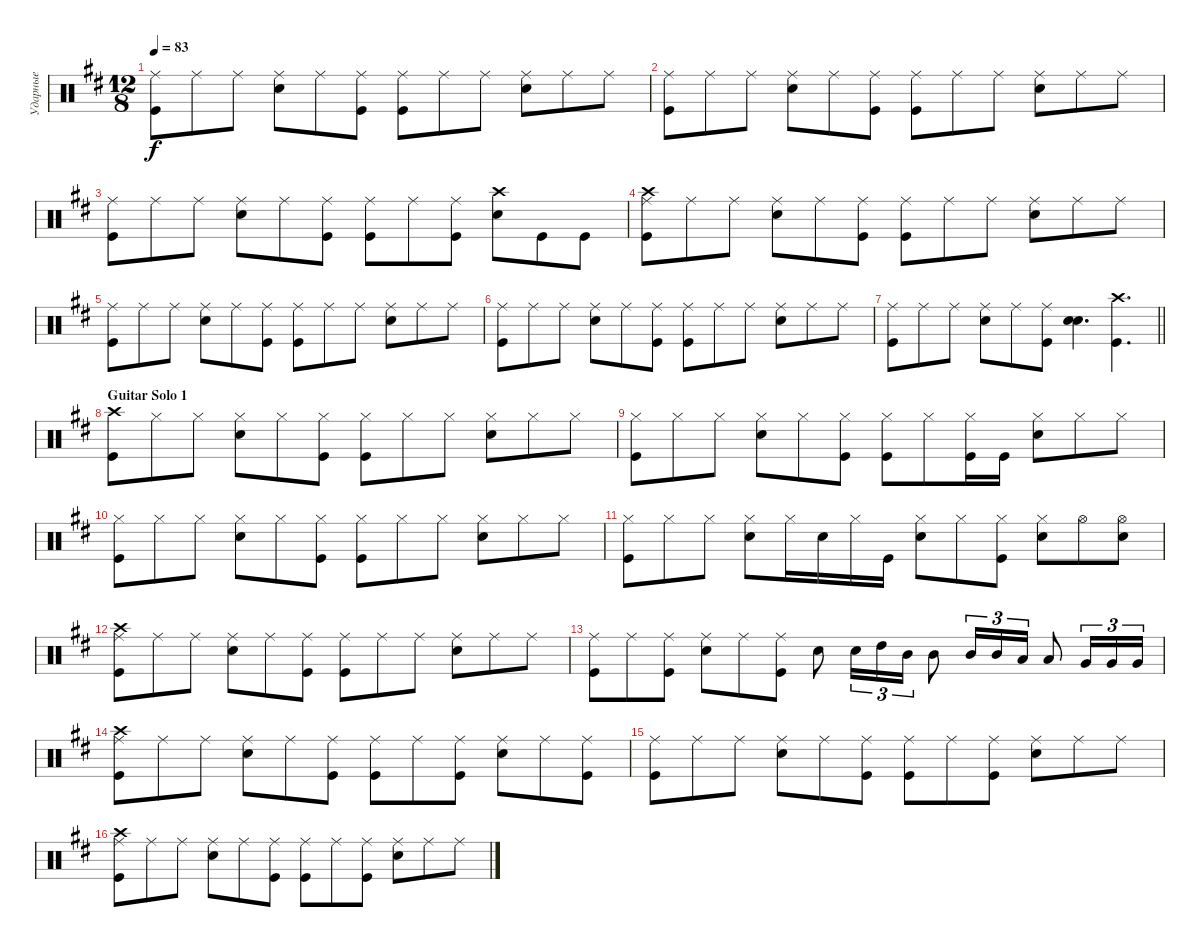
\track ("Ударные" "Ударные") {instrument percussion}
\staff {score}
\articulation defaults
\ts (12 8)
\tempo 83
\clef neutral
\ks bminor
("Kick (hit)" "Ride (middle)").8{dy f} "Ride (middle)".8 "Ride (middle)".8 ("Ride (middle)" "Snare (hit) 2").8 "Ride (middle)".8 ("Ride (middle)" "Kick (hit)").8 ("Kick (hit)" "Ride (middle)").8 "Ride (middle)".8 "Ride (middle)".8 ("Ride (middle)" "Snare (hit) 2").8 "Ride (middle)".8 "Ride (middle)".8 |
("Kick (hit)" "Ride (middle)").8 "Ride (middle)".8 "Ride (middle)".8 ("Ride (middle)" "Snare (hit) 2").8 "Ride (middle)".8 ("Ride (middle)" "Kick (hit)").8 ("Kick (hit)" "Ride (middle)").8 "Ride (middle)".8 "Ride (middle)".8 ("Ride (middle)" "Snare (hit) 2").8 "Ride (middle)".8 "Ride (middle)".8 |
("Kick (hit)" "Ride (middle)").8 "Ride (middle)".8 "Ride (middle)".8 ("Ride (middle)" "Snare (hit) 2").8 "Ride (middle)".8 ("Ride (middle)" "Kick (hit)").8 ("Kick (hit)" "Ride (middle)").8 "Ride (middle)".8 ("Ride (middle)" "Kick (hit)").8 ("Crash high (hit)" "Snare (hit) 2").8 "Kick (hit)".8 "Kick (hit)".8 |
("Kick (hit)" "Ride (middle)" "Crash high (hit)").8 "Ride (middle)".8 "Ride (middle)".8 ("Ride (middle)" "Snare (hit) 2").8 "Ride (middle)".8 ("Ride (middle)" "Kick (hit)").8 ("Kick (hit)" "Ride (middle)").8 "Ride (middle)".8 "Ride (middle)".8 ("Ride (middle)" "Snare (hit) 2").8 "Ride (middle)".8 "Ride (middle)".8 |
("Kick (hit)" "Ride (middle)").8 "Ride (middle)".8 "Ride (middle)".8 ("Ride (middle)" "Snare (hit) 2").8 "Ride (middle)".8 ("Ride (middle)" "Kick (hit)").8 ("Kick (hit)" "Ride (middle)").8 "Ride (middle)".8 "Ride (middle)".8 ("Ride (middle)" "Snare (hit) 2").8 "Ride (middle)".8 "Ride (middle)".8 |
("Kick (hit)" "Ride (middle)").8 "Ride (middle)".8 "Ride (middle)".8 ("Ride (middle)" "Snare (hit) 2").8 "Ride (middle)".8 ("Ride (middle)" "Kick (hit)").8 ("Kick (hit)" "Ride (middle)").8 "Ride (middle)".8 "Ride (middle)".8 ("Ride (middle)" "Snare (hit) 2").8 "Ride (middle)".8 "Ride (middle)".8 |
\barLineRight lightlight
("Kick (hit)" "Ride (middle)").8 "Ride (middle)".8 "Ride (middle)".8 ("Ride (middle)" "Snare (hit) 2").8 "Ride (middle)".8 ("Ride (middle)" "Kick (hit)").8 ("Snare (hit) 2" "Snare (hit) 2").4{d bd 240} ("Kick (hit)" "Crash high (hit)").4{d} |
\section ("" "Guitar Solo 1")
("Kick (hit)" "Crash high (hit)").8 "Hi-Hat (closed)".8 "Hi-Hat (closed)".8 ("Hi-Hat (closed)" "Snare (hit) 2").8 "Hi-Hat (closed)".8 ("Hi-Hat (closed)" "Kick (hit)").8 ("Hi-Hat (closed)" "Kick (hit)").8 "Hi-Hat (closed)".8 "Hi-Hat (closed)".8 ("Hi-Hat (closed)" "Snare (hit) 2").8 "Hi-Hat (closed)".8 "Hi-Hat (closed)".8 |
("Kick (hit)" "Hi-Hat (closed)").8 "Hi-Hat (closed)".8 "Hi-Hat (closed)".8 ("Hi-Hat (closed)" "Snare (hit) 2").8 "Hi-Hat (closed)".8 ("Hi-Hat (closed)" "Kick (hit)").8 ("Hi-Hat (closed)" "Kick (hit)").8 "Hi-Hat (closed)".8 ("Hi-Hat (closed)" "Kick (hit)").16 "Kick (hit)".16 ("Hi-Hat (closed)" "Snare (hit) 2").8 "Hi-Hat (closed)".8 "Hi-Hat (closed)".8 |
("Kick (hit)" "Hi-Hat (closed)").8 "Hi-Hat (closed)".8 "Hi-Hat (closed)".8 ("Hi-Hat (closed)" "Snare (hit) 2").8 "Hi-Hat (closed)".8 ("Hi-Hat (closed)" "Kick (hit)").8 ("Hi-Hat (closed)" "Kick (hit)").8 "Hi-Hat (closed)".8 "Hi-Hat (closed)".8 ("Hi-Hat (closed)" "Snare (hit) 2").8 "Hi-Hat (closed)".8 "Hi-Hat (closed)".8 |
("Kick (hit)" "Hi-Hat (closed)").8 "Hi-Hat (closed)".8 "Hi-Hat (closed)".8 ("Hi-Hat (closed)" "Snare (hit) 2").8 "Hi-Hat (closed)".16 "Snare (hit) 2".16 "Hi-Hat (closed)".16 "Kick (hit)".16 ("Hi-Hat (closed)" "Snare (hit) 2").8 "Hi-Hat (closed)".8 ("Hi-Hat (closed)" "Kick (hit)").8 ("Hi-Hat (closed)" "Snare (hit) 2").8 "Hi-Hat (open)".8 ("Hi-Hat (open)" "Snare (hit) 2").8 |
("Kick (hit)" "Ride (middle)" "Crash high (hit)").8 "Ride (middle)".8 "Ride (middle)".8 ("Ride (middle)" "Snare (hit) 2").8 "Ride (middle)".8 ("Ride (middle)" "Kick (hit)").8 ("Kick (hit)" "Ride (middle)").8 "Ride (middle)".8 "Ride (middle)".8 ("Ride (middle)" "Snare (hit) 2").8 "Ride (middle)".8 "Ride (middle)".8 |
("Kick (hit)" "Ride (middle)").8 "Ride (middle)".8 ("Ride (middle)" "Kick (hit)").8 ("Ride (middle)" "Snare (hit) 2").8 "Ride (middle)".8 ("Kick (hit)" "Ride (middle)").8 "Snare (hit) 2".8 "Snare (hit) 2".16{tu (3 2)} "High Tom (hit)".16{tu (3 2)} "Mid Tom (hit)".16{tu (3 2)} "Mid Tom (hit)".8 "Mid Tom (hit)".16{tu (3 2)} "Mid Tom (hit)".16{tu (3 2)} "Low Tom (hit)".16{tu (3 2)} "Low Tom (hit)".8 "Very Low Tom (hit)".16{tu (3 2)} "Very Low Tom (hit)".16{tu (3 2)} "Very Low Tom (hit)".16{tu (3 2)} |
("Kick (hit)" "Ride (middle)" "Crash high (hit)").8 "Ride (middle)".8 "Ride (middle)".8 ("Ride (middle)" "Snare (hit) 2").8 "Ride (middle)".8 ("Ride (middle)" "Kick (hit)").8 ("Kick (hit)" "Ride (middle)").8 "Ride (middle)".8 ("Ride (middle)" "Kick (hit)").8 ("Ride (middle)" "Snare (hit) 2").8 "Ride (middle)".8 ("Ride (middle)" "Kick (hit)").8 |
("Kick (hit)" "Ride (middle)").8 "Ride (middle)".8 "Ride (middle)".8 ("Ride (middle)" "Snare (hit) 2").8 "Ride (middle)".8 ("Ride (middle)" "Kick (hit)").8 ("Kick (hit)" "Ride (middle)").8 "Ride (middle)".8 ("Ride (middle)" "Kick (hit)").8 ("Ride (middle)" "Snare (hit) 2").8 "Ride (middle)".8 "Ride (middle)".8 |
("Kick (hit)" "Ride (middle)" "Crash high (hit)").8 "Ride (middle)".8 "Ride (middle)".8 ("Ride (middle)" "Snare (hit) 2").8 "Ride (middle)".8 ("Ride (middle)" "Kick (hit)").8 ("Kick (hit)" "Ride (middle)").8 "Ride (middle)".8 ("Ride (middle)" "Kick (hit)").8 ("Ride (middle)" "Snare (hit) 2").8 "Ride (middle)".8 "Ride (middle)".8
